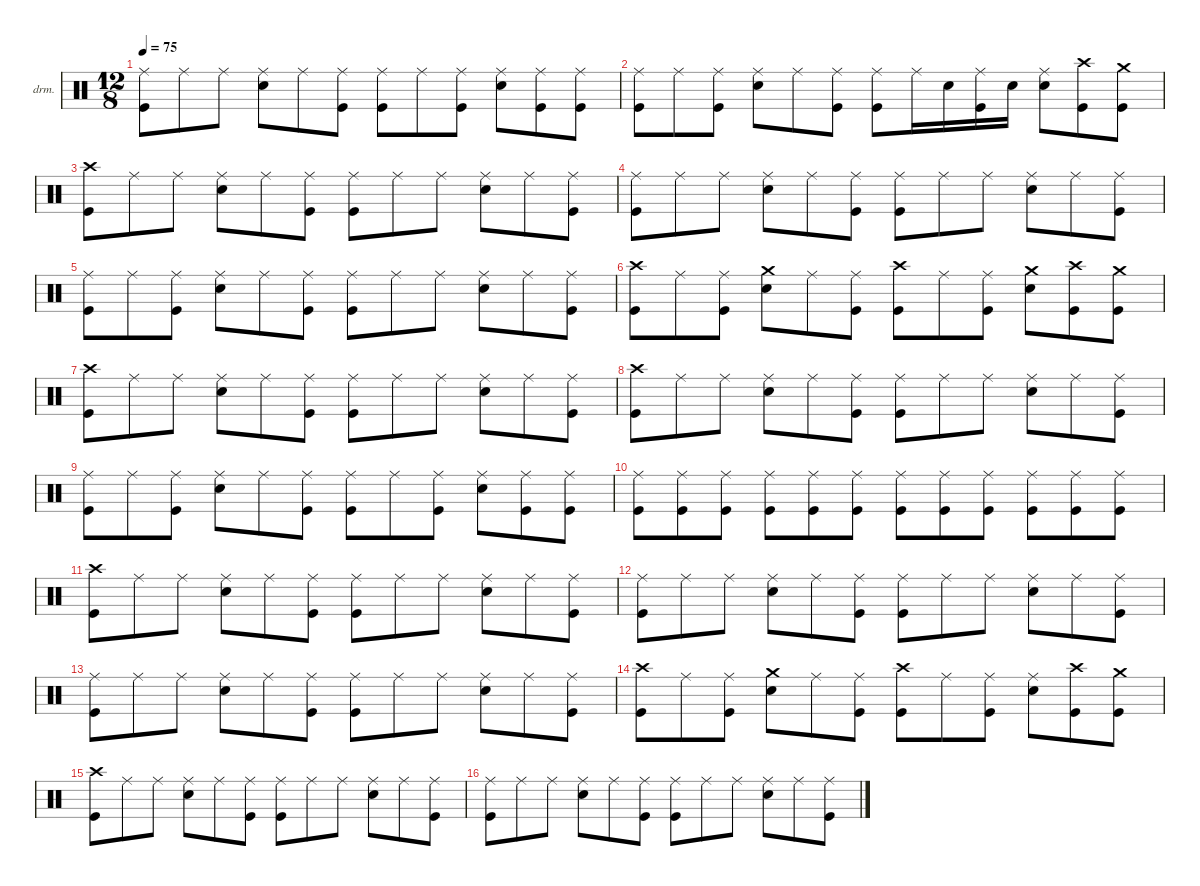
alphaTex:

\defaultSystemsLayout 4
\hideDynamics
\bracketExtendMode nobrackets
\firstSystemTrackNameOrientation horizontal
\otherSystemsTrackNameOrientation horizontal
\track ("Drums" "drm.") {instrument percussion}
\staff {score}
\articulation defaults
\ts (12 8)
\tempo 75
\clef neutral
\ks c
("Ride (middle)" "Kick (hit)").8{dy mf beam Down} "Ride (middle)".8{dy p beam Down} "Ride (middle)".8{dy mp beam Down} ("Ride (middle)" "Snare (hit) 2").8{dy mf beam Down} "Ride (middle)".8{dy p beam Down} ("Ride (middle)" "Kick (hit)").8{dy mp beam Down} ("Ride (middle)" "Kick (hit)").8{beam Down} "Ride (middle)".8{dy p beam Down} ("Ride (middle)" "Kick (hit)").8{dy mp beam Down} ("Ride (middle)" "Snare (hit) 2").8{dy mf beam Down} ("Ride (middle)" "Kick (hit)").8{dy p beam Down} ("Ride (middle)" "Kick (hit)").8{dy mp beam Down} |
("Ride (middle)" "Kick (hit)").8{dy mf beam Down} "Ride (middle)".8{dy p beam Down} ("Ride (middle)" "Kick (hit)").8{dy mp beam Down} ("Ride (middle)" "Snare (hit) 2").8{dy mf beam Down} "Ride (middle)".8{dy p beam Down} ("Ride (middle)" "Kick (hit)").8{dy mp beam Down} ("Ride (middle)" "Kick (hit)").8{beam Down} "Ride (middle)".16{dy p beam Down} "Snare (hit) 2".16{dy f beam Down} ("Ride (middle)" "Kick (hit)").16{dy mp beam Down} "Snare (hit) 2".16{dy mf beam Down} ("Ride (middle)" "Snare (hit) 2").8{beam Down} ("Crash high (hit)" "Kick (hit)").8{dy f beam Down} ("Crash medium (hit)" "Kick (hit)").8{beam Down} |
("Crash high (hit)" "Kick (hit)").8{beam Down} "Ride (middle)".8{dy p beam Down} "Ride (middle)".8{dy mp beam Down} ("Ride (middle)" "Snare (hit) 2").8{dy mf beam Down} "Ride (middle)".8{dy p beam Down} ("Ride (middle)" "Kick (hit)").8{dy mp beam Down} ("Ride (middle)" "Kick (hit)").8{beam Down} "Ride (middle)".8{dy p beam Down} "Ride (middle)".8{dy mp beam Down} ("Ride (middle)" "Snare (hit) 2").8{dy mf beam Down} "Ride (middle)".8{dy p beam Down} ("Ride (middle)" "Kick (hit)").8{dy mp beam Down} |
("Ride (middle)" "Kick (hit)").8{dy mf beam Down} "Ride (middle)".8{dy p beam Down} "Ride (middle)".8{dy mp beam Down} ("Ride (middle)" "Snare (hit) 2").8{dy mf beam Down} "Ride (middle)".8{dy p beam Down} ("Ride (middle)" "Kick (hit)").8{dy mp beam Down} ("Ride (middle)" "Kick (hit)").8{beam Down} "Ride (middle)".8{dy p beam Down} "Ride (middle)".8{dy mp beam Down} ("Ride (middle)" "Snare (hit) 2").8{dy mf beam Down} "Ride (middle)".8{dy p beam Down} ("Ride (middle)" "Kick (hit)").8{dy mp beam Down} |
("Ride (middle)" "Kick (hit)").8{dy mf beam Down} "Ride (middle)".8{dy p beam Down} ("Ride (middle)" "Kick (hit)").8{dy mp beam Down} ("Ride (middle)" "Snare (hit) 2").8{dy mf beam Down} "Ride (middle)".8{dy p beam Down} ("Ride (middle)" "Kick (hit)").8{dy mp beam Down} ("Ride (middle)" "Kick (hit)").8{beam Down} "Ride (middle)".8{dy p beam Down} "Ride (middle)".8{dy mp beam Down} ("Ride (middle)" "Snare (hit) 2").8{dy mf beam Down} "Ride (middle)".8{dy p beam Down} ("Ride (middle)" "Kick (hit)").8{dy mp beam Down} |
("Crash high (hit)" "Kick (hit)").8{dy f beam Down} "Ride (middle)".8{dy p beam Down} ("Ride (middle)" "Kick (hit)").8{dy mp beam Down} ("Crash medium (hit)" "Snare (hit) 2").8{dy f beam Down} "Ride (middle)".8{dy p beam Down} ("Ride (middle)" "Kick (hit)").8{dy mp beam Down} ("Crash high (hit)" "Kick (hit)").8{dy f beam Down} "Ride (middle)".8{dy p beam Down} ("Ride (middle)" "Kick (hit)").8{dy mp beam Down} ("Crash medium (hit)" "Snare (hit) 2").8{dy f beam Down} ("Crash high (hit)" "Kick (hit)").8{beam Down} ("Crash medium (hit)" "Kick (hit)").8{beam Down} |
("Crash high (hit)" "Kick (hit)").8{beam Down} "Ride (middle)".8{dy p beam Down} "Ride (middle)".8{dy mp beam Down} ("Ride (middle)" "Snare (hit) 2").8{dy mf beam Down} "Ride (middle)".8{dy p beam Down} ("Ride (middle)" "Kick (hit)").8{dy mp beam Down} ("Ride (middle)" "Kick (hit)").8{beam Down} "Ride (middle)".8{dy p beam Down} "Ride (middle)".8{dy mp beam Down} ("Ride (middle)" "Snare (hit) 2").8{dy mf beam Down} "Ride (middle)".8{dy p beam Down} ("Ride (middle)" "Kick (hit)").8{dy mp beam Down} |
("Crash high (hit)" "Kick (hit)").8{dy f beam Down} "Ride (middle)".8{dy p beam Down} "Ride (middle)".8{dy mp beam Down} ("Ride (middle)" "Snare (hit) 2").8{dy mf beam Down} "Ride (middle)".8{dy p beam Down} ("Ride (middle)" "Kick (hit)").8{dy mp beam Down} ("Ride (middle)" "Kick (hit)").8{beam Down} "Ride (middle)".8{dy p beam Down} "Ride (middle)".8{dy mp beam Down} ("Ride (middle)" "Snare (hit) 2").8{dy mf beam Down} "Ride (middle)".8{dy p beam Down} ("Ride (middle)" "Kick (hit)").8{dy mp beam Down} |
("Ride (middle)" "Kick (hit)").8{dy mf beam Down} "Ride (middle)".8{dy p beam Down} ("Ride (middle)" "Kick (hit)").8{dy mp beam Down} ("Ride (middle)" "Snare (hit) 2").8{dy mf beam Down} "Ride (middle)".8{dy p beam Down} ("Ride (middle)" "Kick (hit)").8{dy mp beam Down} ("Ride (middle)" "Kick (hit)").8{beam Down} "Ride (middle)".8{dy p beam Down} ("Ride (middle)" "Kick (hit)").8{dy mp beam Down} ("Ride (middle)" "Snare (hit) 2").8{dy mf beam Down} ("Ride (middle)" "Kick (hit)").8{dy p beam Down} ("Ride (middle)" "Kick (hit)").8{dy mp beam Down} |
("Ride (middle)" "Kick (hit)").8{dy mf beam Down} ("Ride (middle)" "Kick (hit)").8{dy p beam Down} ("Ride (middle)" "Kick (hit)").8{dy mp beam Down} ("Ride (middle)" "Kick (hit)").8{dy mf beam Down} ("Ride (middle)" "Kick (hit)").8{dy p beam Down} ("Ride (middle)" "Kick (hit)").8{dy mp beam Down} ("Ride (middle)" "Kick (hit)").8{dy mf beam Down} ("Ride (middle)" "Kick (hit)").8{dy p beam Down} ("Ride (middle)" "Kick (hit)").8{dy mp beam Down} ("Ride (middle)" "Kick (hit)").8{dy mf beam Down} ("Ride (middle)" "Kick (hit)").8{dy p beam Down} ("Ride (middle)" "Kick (hit)").8{dy mp beam Down} |
("Crash high (hit)" "Kick (hit)").8{dy f beam Down} "Ride (middle)".8{dy p beam Down} "Ride (middle)".8{dy mp beam Down} ("Ride (middle)" "Snare (hit) 2").8{dy mf beam Down} "Ride (middle)".8{dy p beam Down} ("Ride (middle)" "Kick (hit)").8{dy mp beam Down} ("Ride (middle)" "Kick (hit)").8{beam Down} "Ride (middle)".8{dy p beam Down} "Ride (middle)".8{dy mp beam Down} ("Ride (middle)" "Snare (hit) 2").8{dy mf beam Down} "Ride (middle)".8{dy p beam Down} ("Ride (middle)" "Kick (hit)").8{dy mp beam Down} |
("Ride (middle)" "Kick (hit)").8{dy mf beam Down} "Ride (middle)".8{dy p beam Down} "Ride (middle)".8{dy mp beam Down} ("Ride (middle)" "Snare (hit) 2").8{dy mf beam Down} "Ride (middle)".8{dy p beam Down} ("Ride (middle)" "Kick (hit)").8{dy mp beam Down} ("Ride (middle)" "Kick (hit)").8{beam Down} "Ride (middle)".8{dy p beam Down} "Ride (middle)".8{dy mp beam Down} ("Ride (middle)" "Snare (hit) 2").8{dy mf beam Down} "Ride (middle)".8{dy p beam Down} ("Ride (middle)" "Kick (hit)").8{dy mp beam Down} |
("Ride (middle)" "Kick (hit)").8{dy mf beam Down} "Ride (middle)".8{dy p beam Down} "Ride (middle)".8{dy mp beam Down} ("Ride (middle)" "Snare (hit) 2").8{dy mf beam Down} "Ride (middle)".8{dy p beam Down} ("Ride (middle)" "Kick (hit)").8{dy mp beam Down} ("Ride (middle)" "Kick (hit)").8{beam Down} "Ride (middle)".8{dy p beam Down} "Ride (middle)".8{dy mp beam Down} ("Ride (middle)" "Snare (hit) 2").8{dy mf beam Down} "Ride (middle)".8{dy p beam Down} ("Ride (middle)" "Kick (hit)").8{dy mp beam Down} |
("Crash high (hit)" "Kick (hit)").8{dy f beam Down} "Ride (middle)".8{dy p beam Down} ("Ride (middle)" "Kick (hit)").8{dy mp beam Down} ("Crash medium (hit)" "Snare (hit) 2").8{dy f beam Down} "Ride (middle)".8{dy p beam Down} ("Ride (middle)" "Kick (hit)").8{dy mp beam Down} ("Crash high (hit)" "Kick (hit)").8{dy f beam Down} "Ride (middle)".8{dy p beam Down} ("Ride (middle)" "Kick (hit)").8{dy mp beam Down} ("Ride (middle)" "Snare (hit) 2").8{dy mf beam Down} ("Crash high (hit)" "Kick (hit)").8{dy f beam Down} ("Crash medium (hit)" "Kick (hit)").8{beam Down} |
("Crash high (hit)" "Kick (hit)").8{beam Down} "Ride (middle)".8{dy p beam Down} "Ride (middle)".8{dy mp beam Down} ("Ride (middle)" "Snare (hit) 2").8{dy mf beam Down} "Ride (middle)".8{dy p beam Down} ("Ride (middle)" "Kick (hit)").8{dy mp beam Down} ("Ride (middle)" "Kick (hit)").8{beam Down} "Ride (middle)".8{dy p beam Down} "Ride (middle)".8{dy mp beam Down} ("Ride (middle)" "Snare (hit) 2").8{dy mf beam Down} "Ride (middle)".8{dy p beam Down} ("Ride (middle)" "Kick (hit)").8{dy mp beam Down} |
("Ride (middle)" "Kick (hit)").8{dy mf beam Down} "Ride (middle)".8{dy p beam Down} "Ride (middle)".8{dy mp beam Down} ("Ride (middle)" "Snare (hit) 2").8{dy mf beam Down} "Ride (middle)".8{dy p beam Down} ("Ride (middle)" "Kick (hit)").8{dy mp beam Down} ("Ride (middle)" "Kick (hit)").8{beam Down} "Ride (middle)".8{dy p beam Down} "Ride (middle)".8{dy mp beam Down} ("Ride (middle)" "Snare (hit) 2").8{dy mf beam Down} "Ride (middle)".8{dy p beam Down} ("Ride (middle)" "Kick (hit)").8{dy mp beam Down}
